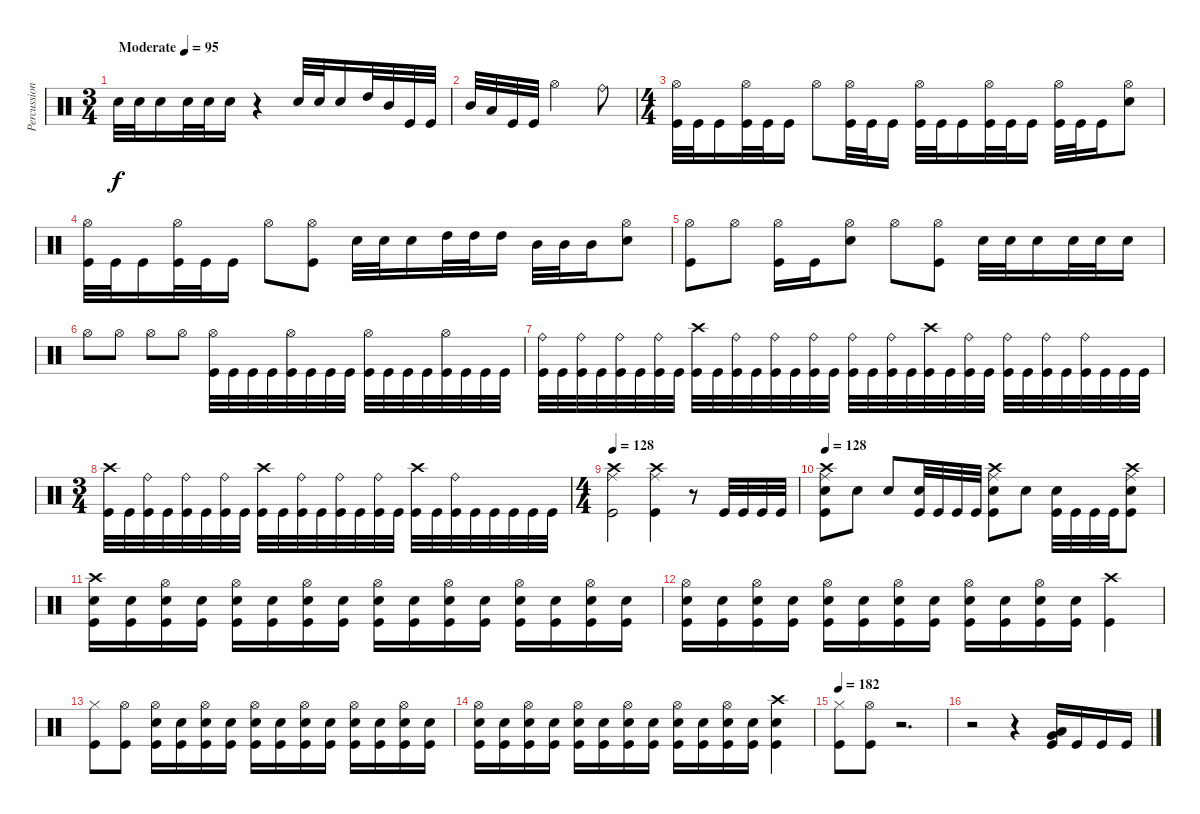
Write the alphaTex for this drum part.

\track ("Percussion" "Percussion") {instrument percussion}
\staff {score}
\articulation defaults
\ts (3 4)
\tempo (95 "Moderate")
\clef neutral
\ks c "Snare (hit) 2".32{dy f balance 16} "Snare (hit) 2".32 "Snare (hit) 2".16 "Snare (hit) 2".32 "Snare (hit) 2".32 "Snare (hit) 2".16
r.4 "Snare (hit) 2".32 "Snare (hit) 2".32 "Snare (hit) 2".16 "High Tom (hit)".32 "Mid Tom (hit)".32 "Kick (hit)".32 "Kick (hit)".32 |
"Mid Tom (hit)".32 "Low Tom (hit)".32 "Kick (hit)".32 "Kick (hit)".32 "Hi-Hat (open)".2 "Ride (bell)".8 |
\ts (4 4)
("Hi-Hat (open)" "Kick (hit)").32{balance 8} "Kick (hit)".32 "Kick (hit)".16 ("Hi-Hat (open)" "Kick (hit)").32 "Kick (hit)".32 "Kick (hit)".16 "Hi-Hat (open)".8 ("Hi-Hat (open)" "Kick (hit)").32 "Kick (hit)".32 "Kick (hit)".16 ("Hi-Hat (open)" "Kick (hit)").32 "Kick (hit)".32 "Kick (hit)".16 ("Hi-Hat (open)" "Kick (hit)").32 "Kick (hit)".32 "Kick (hit)".16 ("Hi-Hat (open)" "Kick (hit)").32 "Kick (hit)".32 "Kick (hit)".16 ("Hi-Hat (open)" "Snare (hit) 2").8 |
("Hi-Hat (open)" "Kick (hit)").32 "Kick (hit)".32 "Kick (hit)".16 ("Hi-Hat (open)" "Kick (hit)").32 "Kick (hit)".32 "Kick (hit)".16 "Hi-Hat (open)".8 ("Hi-Hat (open)" "Kick (hit)").8 "Snare (hit) 2".32 "Snare (hit) 2".32 "Snare (hit) 2".16 "High Tom (hit)".32 "High Tom (hit)".32 "High Tom (hit)".16 "Mid Tom (hit)".32 "Mid Tom (hit)".32 "Mid Tom (hit)".16 ("Hi-Hat (open)" "Snare (hit) 2").8 |
("Hi-Hat (open)" "Kick (hit)").8 "Hi-Hat (open)".8 ("Hi-Hat (open)" "Kick (hit)").16 "Kick (hit)".16 ("Hi-Hat (open)" "Snare (hit) 2").8 "Hi-Hat (open)".8 ("Hi-Hat (open)" "Kick (hit)").8 "Snare (hit) 2".32 "Snare (hit) 2".32 "Snare (hit) 2".16 "Snare (hit) 2".32 "Snare (hit) 2".32 "Snare (hit) 2".16 |
"Hi-Hat (open)".8 "Hi-Hat (open)".8 "Hi-Hat (open)".8 "Hi-Hat (open)".8 ("Hi-Hat (open)" "Kick (hit)").32 "Kick (hit)".32 "Kick (hit)".32 "Kick (hit)".32 ("Hi-Hat (open)" "Kick (hit)").32 "Kick (hit)".32 "Kick (hit)".32 "Kick (hit)".32 ("Hi-Hat (open)" "Kick (hit)").32 "Kick (hit)".32 "Kick (hit)".32 "Kick (hit)".32 ("Hi-Hat (open)" "Kick (hit)").32 "Kick (hit)".32 "Kick (hit)".32 "Kick (hit)".32 |
("Ride (bell)" "Kick (hit)").32 "Kick (hit)".32 ("Ride (bell)" "Kick (hit)").32 "Kick (hit)".32 ("Ride (bell)" "Kick (hit)").32 "Kick (hit)".32 ("Ride (bell)" "Kick (hit)").32 "Kick (hit)".32 ("Crash high (hit)" "Kick (hit)").32 "Kick (hit)".32 ("Ride (bell)" "Kick (hit)").32 "Kick (hit)".32 ("Ride (bell)" "Kick (hit)").32 "Kick (hit)".32 ("Ride (bell)" "Kick (hit)").32 "Kick (hit)".32 ("Ride (bell)" "Kick (hit)").32 "Kick (hit)".32 ("Ride (bell)" "Kick (hit)").32 "Kick (hit)".32 ("Crash high (hit)" "Kick (hit)").32 "Kick (hit)".32 ("Ride (bell)" "Kick (hit)").32 "Kick (hit)".32 ("Ride (bell)" "Kick (hit)").32 "Kick (hit)".32 ("Ride (bell)" "Kick (hit)").32 "Kick (hit)".32 ("Ride (bell)" "Kick (hit)").32 "Kick (hit)".32 "Kick (hit)".32 "Kick (hit)".32 |
\ts (3 4)
("Crash high (hit)" "Kick (hit)").32 "Kick (hit)".32 ("Ride (bell)" "Kick (hit)").32 "Kick (hit)".32 ("Ride (bell)" "Kick (hit)").32 "Kick (hit)".32 ("Ride (bell)" "Kick (hit)").32 "Kick (hit)".32 ("Crash high (hit)" "Kick (hit)").32 "Kick (hit)".32 ("Ride (bell)" "Kick (hit)").32 "Kick (hit)".32 ("Ride (bell)" "Kick (hit)").32 "Kick (hit)".32 ("Ride (bell)" "Kick (hit)").32 "Kick (hit)".32 ("Crash high (hit)" "Kick (hit)").32 "Kick (hit)".32 ("Ride (bell)" "Kick (hit)").32 "Kick (hit)".32 "Kick (hit)".32 "Kick (hit)".32 "Kick (hit)".32 "Kick (hit)".32 |
\ts (4 4)
\tempo 128
("Crash high (hit)" "Ride (middle)" "Kick (hit)").2 ("Crash high (hit)" "Ride (middle)" "Kick (hit)").4 r.8 "Kick (hit)".32 "Kick (hit)".32 "Kick (hit)".32 "Kick (hit)".32 |
\tempo 128
("Crash high (hit)" "Ride (middle)" "Snare (hit) 2" "Kick (hit)").8 "Snare (hit) 2".8 "Snare (hit) 2".8 ("Snare (hit) 2" "Kick (hit)").32 "Kick (hit)".32 "Kick (hit)".32 "Kick (hit)".32 ("Crash high (hit)" "Ride (middle)" "Snare (hit) 2" "Kick (hit)").8 "Snare (hit) 2".8 ("Snare (hit) 2" "Kick (hit)").32 "Kick (hit)".32 "Kick (hit)".32 "Kick (hit)".32 ("Crash high (hit)" "Ride (middle)" "Snare (hit) 2" "Kick (hit)").8 |
("Crash high (hit)" "Snare (hit) 2" "Kick (hit)").16 ("Snare (hit) 2" "Kick (hit)").16 ("Hi-Hat (open)" "Snare (hit) 2" "Kick (hit)").16 ("Snare (hit) 2" "Kick (hit)").16 ("Hi-Hat (open)" "Snare (hit) 2" "Kick (hit)").16 ("Snare (hit) 2" "Kick (hit)").16 ("Hi-Hat (open)" "Snare (hit) 2" "Kick (hit)").16 ("Snare (hit) 2" "Kick (hit)").16 ("Hi-Hat (open)" "Snare (hit) 2" "Kick (hit)").16 ("Snare (hit) 2" "Kick (hit)").16 ("Hi-Hat (open)" "Snare (hit) 2" "Kick (hit)").16 ("Snare (hit) 2" "Kick (hit)").16 ("Hi-Hat (open)" "Snare (hit) 2" "Kick (hit)").16 ("Snare (hit) 2" "Kick (hit)").16 ("Hi-Hat (open)" "Snare (hit) 2" "Kick (hit)").16 ("Snare (hit) 2" "Kick (hit)").16 |
("Hi-Hat (open)" "Snare (hit) 2" "Kick (hit)").16 ("Snare (hit) 2" "Kick (hit)").16 ("Hi-Hat (open)" "Snare (hit) 2" "Kick (hit)").16 ("Snare (hit) 2" "Kick (hit)").16 ("Hi-Hat (open)" "Snare (hit) 2" "Kick (hit)").16 ("Snare (hit) 2" "Kick (hit)").16 ("Hi-Hat (open)" "Snare (hit) 2" "Kick (hit)").16 ("Snare (hit) 2" "Kick (hit)").16 ("Hi-Hat (open)" "Snare (hit) 2" "Kick (hit)").16 ("Snare (hit) 2" "Kick (hit)").16 ("Hi-Hat (open)" "Snare (hit) 2" "Kick (hit)").16 ("Snare (hit) 2" "Kick (hit)").16 ("Crash high (hit)" "Kick (hit)").4 |
("Hi-Hat (closed)" "Kick (hit)").8 ("Hi-Hat (open)" "Kick (hit)").8 ("Hi-Hat (open)" "Snare (hit) 2" "Kick (hit)").16 ("Snare (hit) 2" "Kick (hit)").16 ("Hi-Hat (open)" "Snare (hit) 2" "Kick (hit)").16 ("Snare (hit) 2" "Kick (hit)").16 ("Hi-Hat (open)" "Snare (hit) 2" "Kick (hit)").16 ("Snare (hit) 2" "Kick (hit)").16 ("Hi-Hat (open)" "Snare (hit) 2" "Kick (hit)").16 ("Snare (hit) 2" "Kick (hit)").16 ("Hi-Hat (open)" "Snare (hit) 2" "Kick (hit)").16 ("Snare (hit) 2" "Kick (hit)").16 ("Hi-Hat (open)" "Snare (hit) 2" "Kick (hit)").16 ("Snare (hit) 2" "Kick (hit)").16 |
("Hi-Hat (open)" "Snare (hit) 2" "Kick (hit)").16 ("Snare (hit) 2" "Kick (hit)").16 ("Hi-Hat (open)" "Snare (hit) 2" "Kick (hit)").16 ("Snare (hit) 2" "Kick (hit)").16 ("Hi-Hat (open)" "Snare (hit) 2" "Kick (hit)").16 ("Snare (hit) 2" "Kick (hit)").16 ("Hi-Hat (open)" "Snare (hit) 2" "Kick (hit)").16 ("Snare (hit) 2" "Kick (hit)").16 ("Hi-Hat (open)" "Snare (hit) 2" "Kick (hit)").16 ("Snare (hit) 2" "Kick (hit)").16 ("Hi-Hat (open)" "Snare (hit) 2" "Kick (hit)").16 ("Snare (hit) 2" "Kick (hit)").16 ("Crash high (hit)" "Snare (hit) 2" "Kick (hit)").4 |
\tempo 182
("Hi-Hat (closed)" "Kick (hit)").8 ("Hi-Hat (open)" "Kick (hit)").8 r.2{d} |
r.2 r.4 ("Very Low Tom (hit)" "Low Tom (hit)" "Kick (hit)").16 "Kick (hit)".16 "Kick (hit)".16 "Kick (hit)".16
